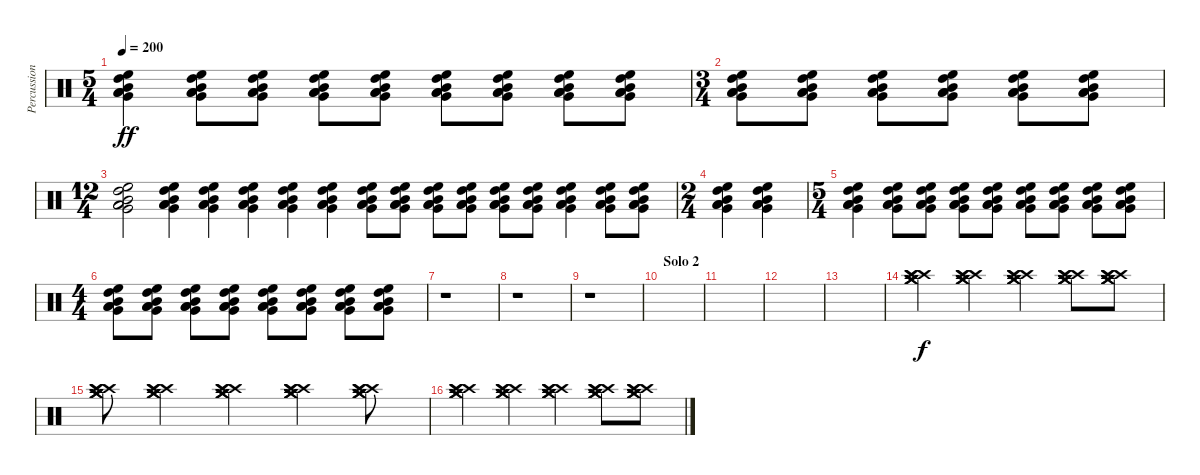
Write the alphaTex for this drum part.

\track ("Percussion" "Percussion") {instrument percussion}
\staff {score}
\articulation defaults
\ts (5 4)
\tempo 200
\clef neutral
\ks c
("High Floor Tom (hit)" "High Tom (hit)" "Mid Tom (hit)" "Low Tom (hit)" "Very Low Tom (hit)" "Low Floor Tom (hit)").4{dy ff} ("High Floor Tom (hit)" "High Tom (hit)" "Mid Tom (hit)" "Low Tom (hit)" "Very Low Tom (hit)" "Low Floor Tom (hit)").8 ("High Floor Tom (hit)" "High Tom (hit)" "Mid Tom (hit)" "Low Tom (hit)" "Very Low Tom (hit)" "Low Floor Tom (hit)").8 ("High Floor Tom (hit)" "High Tom (hit)" "Mid Tom (hit)" "Low Tom (hit)" "Very Low Tom (hit)" "Low Floor Tom (hit)").8 ("High Floor Tom (hit)" "High Tom (hit)" "Mid Tom (hit)" "Low Tom (hit)" "Very Low Tom (hit)" "Low Floor Tom (hit)").8 ("High Floor Tom (hit)" "High Tom (hit)" "Mid Tom (hit)" "Low Tom (hit)" "Very Low Tom (hit)" "Low Floor Tom (hit)").8 ("High Floor Tom (hit)" "High Tom (hit)" "Mid Tom (hit)" "Low Tom (hit)" "Very Low Tom (hit)" "Low Floor Tom (hit)").8 ("High Floor Tom (hit)" "High Tom (hit)" "Mid Tom (hit)" "Low Tom (hit)" "Very Low Tom (hit)" "Low Floor Tom (hit)").8 ("High Floor Tom (hit)" "High Tom (hit)" "Mid Tom (hit)" "Low Tom (hit)" "Very Low Tom (hit)" "Low Floor Tom (hit)").8 |
\ts (3 4)
("High Floor Tom (hit)" "High Tom (hit)" "Mid Tom (hit)" "Low Tom (hit)" "Very Low Tom (hit)" "Low Floor Tom (hit)").8 ("High Floor Tom (hit)" "High Tom (hit)" "Mid Tom (hit)" "Low Tom (hit)" "Very Low Tom (hit)" "Low Floor Tom (hit)").8 ("High Floor Tom (hit)" "High Tom (hit)" "Mid Tom (hit)" "Low Tom (hit)" "Very Low Tom (hit)" "Low Floor Tom (hit)").8 ("High Floor Tom (hit)" "High Tom (hit)" "Mid Tom (hit)" "Low Tom (hit)" "Very Low Tom (hit)" "Low Floor Tom (hit)").8 ("High Floor Tom (hit)" "High Tom (hit)" "Mid Tom (hit)" "Low Tom (hit)" "Very Low Tom (hit)" "Low Floor Tom (hit)").8 ("High Floor Tom (hit)" "High Tom (hit)" "Mid Tom (hit)" "Low Tom (hit)" "Very Low Tom (hit)" "Low Floor Tom (hit)").8 |
\ts (12 4)
("High Floor Tom (hit)" "High Tom (hit)" "Mid Tom (hit)" "Low Tom (hit)" "Very Low Tom (hit)" "Low Floor Tom (hit)").2 ("High Floor Tom (hit)" "High Tom (hit)" "Mid Tom (hit)" "Low Tom (hit)" "Very Low Tom (hit)" "Low Floor Tom (hit)").4 ("High Floor Tom (hit)" "High Tom (hit)" "Mid Tom (hit)" "Low Tom (hit)" "Very Low Tom (hit)" "Low Floor Tom (hit)").4 ("High Floor Tom (hit)" "High Tom (hit)" "Mid Tom (hit)" "Low Tom (hit)" "Very Low Tom (hit)" "Low Floor Tom (hit)").4 ("High Floor Tom (hit)" "High Tom (hit)" "Mid Tom (hit)" "Low Tom (hit)" "Very Low Tom (hit)" "Low Floor Tom (hit)").4 ("High Floor Tom (hit)" "High Tom (hit)" "Mid Tom (hit)" "Low Tom (hit)" "Very Low Tom (hit)" "Low Floor Tom (hit)").4 ("High Floor Tom (hit)" "High Tom (hit)" "Mid Tom (hit)" "Low Tom (hit)" "Very Low Tom (hit)" "Low Floor Tom (hit)").8 ("High Floor Tom (hit)" "High Tom (hit)" "Mid Tom (hit)" "Low Tom (hit)" "Very Low Tom (hit)" "Low Floor Tom (hit)").8 ("High Floor Tom (hit)" "High Tom (hit)" "Mid Tom (hit)" "Low Tom (hit)" "Very Low Tom (hit)" "Low Floor Tom (hit)").8 ("High Floor Tom (hit)" "High Tom (hit)" "Mid Tom (hit)" "Low Tom (hit)" "Very Low Tom (hit)" "Low Floor Tom (hit)").8 ("High Floor Tom (hit)" "High Tom (hit)" "Mid Tom (hit)" "Low Tom (hit)" "Very Low Tom (hit)" "Low Floor Tom (hit)").8 ("High Floor Tom (hit)" "High Tom (hit)" "Mid Tom (hit)" "Low Tom (hit)" "Very Low Tom (hit)" "Low Floor Tom (hit)").8 ("High Floor Tom (hit)" "High Tom (hit)" "Mid Tom (hit)" "Low Tom (hit)" "Very Low Tom (hit)" "Low Floor Tom (hit)").4 ("High Floor Tom (hit)" "High Tom (hit)" "Mid Tom (hit)" "Low Tom (hit)" "Very Low Tom (hit)" "Low Floor Tom (hit)").8 ("High Floor Tom (hit)" "High Tom (hit)" "Mid Tom (hit)" "Low Tom (hit)" "Very Low Tom (hit)" "Low Floor Tom (hit)").8 |
\ts (2 4)
("High Floor Tom (hit)" "High Tom (hit)" "Mid Tom (hit)" "Low Tom (hit)" "Very Low Tom (hit)" "Low Floor Tom (hit)").4 ("High Floor Tom (hit)" "High Tom (hit)" "Mid Tom (hit)" "Low Tom (hit)" "Very Low Tom (hit)" "Low Floor Tom (hit)").4 |
\ts (5 4)
("High Floor Tom (hit)" "High Tom (hit)" "Mid Tom (hit)" "Low Tom (hit)" "Very Low Tom (hit)" "Low Floor Tom (hit)").4 ("High Floor Tom (hit)" "High Tom (hit)" "Mid Tom (hit)" "Low Tom (hit)" "Very Low Tom (hit)" "Low Floor Tom (hit)").8 ("High Floor Tom (hit)" "High Tom (hit)" "Mid Tom (hit)" "Low Tom (hit)" "Very Low Tom (hit)" "Low Floor Tom (hit)").8 ("High Floor Tom (hit)" "High Tom (hit)" "Mid Tom (hit)" "Low Tom (hit)" "Very Low Tom (hit)" "Low Floor Tom (hit)").8 ("High Floor Tom (hit)" "High Tom (hit)" "Mid Tom (hit)" "Low Tom (hit)" "Very Low Tom (hit)" "Low Floor Tom (hit)").8 ("High Floor Tom (hit)" "High Tom (hit)" "Mid Tom (hit)" "Low Tom (hit)" "Very Low Tom (hit)" "Low Floor Tom (hit)").8 ("High Floor Tom (hit)" "High Tom (hit)" "Mid Tom (hit)" "Low Tom (hit)" "Very Low Tom (hit)" "Low Floor Tom (hit)").8 ("High Floor Tom (hit)" "High Tom (hit)" "Mid Tom (hit)" "Low Tom (hit)" "Very Low Tom (hit)" "Low Floor Tom (hit)").8 ("High Floor Tom (hit)" "High Tom (hit)" "Mid Tom (hit)" "Low Tom (hit)" "Very Low Tom (hit)" "Low Floor Tom (hit)").8 |
\ts (4 4)
("High Floor Tom (hit)" "High Tom (hit)" "Mid Tom (hit)" "Low Tom (hit)" "Very Low Tom (hit)" "Low Floor Tom (hit)").8 ("High Floor Tom (hit)" "High Tom (hit)" "Mid Tom (hit)" "Low Tom (hit)" "Very Low Tom (hit)" "Low Floor Tom (hit)").8 ("High Floor Tom (hit)" "High Tom (hit)" "Mid Tom (hit)" "Low Tom (hit)" "Very Low Tom (hit)" "Low Floor Tom (hit)").8 ("High Floor Tom (hit)" "High Tom (hit)" "Mid Tom (hit)" "Low Tom (hit)" "Very Low Tom (hit)" "Low Floor Tom (hit)").8 ("High Floor Tom (hit)" "High Tom (hit)" "Mid Tom (hit)" "Low Tom (hit)" "Very Low Tom (hit)" "Low Floor Tom (hit)").8 ("High Floor Tom (hit)" "High Tom (hit)" "Mid Tom (hit)" "Low Tom (hit)" "Very Low Tom (hit)" "Low Floor Tom (hit)").8 ("High Floor Tom (hit)" "High Tom (hit)" "Mid Tom (hit)" "Low Tom (hit)" "Very Low Tom (hit)" "Low Floor Tom (hit)").8 ("High Floor Tom (hit)" "High Tom (hit)" "Mid Tom (hit)" "Low Tom (hit)" "Very Low Tom (hit)" "Low Floor Tom (hit)").8 |
r.1 |
r.1 |
r.1 |
\section ("" "Solo 2 ")
|
|
|
|
("Crash high (hit)" "Crash high (hit)" "Crash high (hit)" "Crash medium (hit)" "Crash medium (hit)" "Crash medium (hit)").4{dy f} ("Crash high (hit)" "Crash high (hit)" "Crash high (hit)" "Crash medium (hit)" "Crash medium (hit)" "Crash medium (hit)").4 ("Crash high (hit)" "Crash high (hit)" "Crash high (hit)" "Crash medium (hit)" "Crash medium (hit)" "Crash medium (hit)").4 ("Crash high (hit)" "Crash high (hit)" "Crash high (hit)" "Crash medium (hit)" "Crash medium (hit)" "Crash medium (hit)").8 ("Crash high (hit)" "Crash high (hit)" "Crash high (hit)" "Crash medium (hit)" "Crash medium (hit)" "Crash medium (hit)").8 |
("Crash high (hit)" "Crash high (hit)" "Crash high (hit)" "Crash medium (hit)" "Crash medium (hit)" "Crash medium (hit)").8 ("Crash high (hit)" "Crash high (hit)" "Crash high (hit)" "Crash medium (hit)" "Crash medium (hit)" "Crash medium (hit)").4 ("Crash high (hit)" "Crash high (hit)" "Crash high (hit)" "Crash medium (hit)" "Crash medium (hit)" "Crash medium (hit)").4 ("Crash high (hit)" "Crash high (hit)" "Crash high (hit)" "Crash medium (hit)" "Crash medium (hit)" "Crash medium (hit)").4 ("Crash high (hit)" "Crash high (hit)" "Crash high (hit)" "Crash medium (hit)" "Crash medium (hit)" "Crash medium (hit)").8 |
("Crash high (hit)" "Crash high (hit)" "Crash high (hit)" "Crash medium (hit)" "Crash medium (hit)" "Crash medium (hit)").4 ("Crash high (hit)" "Crash high (hit)" "Crash high (hit)" "Crash medium (hit)" "Crash medium (hit)" "Crash medium (hit)").4 ("Crash high (hit)" "Crash high (hit)" "Crash high (hit)" "Crash medium (hit)" "Crash medium (hit)" "Crash medium (hit)").4 ("Crash high (hit)" "Crash high (hit)" "Crash high (hit)" "Crash medium (hit)" "Crash medium (hit)" "Crash medium (hit)").8 ("Crash high (hit)" "Crash high (hit)" "Crash high (hit)" "Crash medium (hit)" "Crash medium (hit)" "Crash medium (hit)").8
